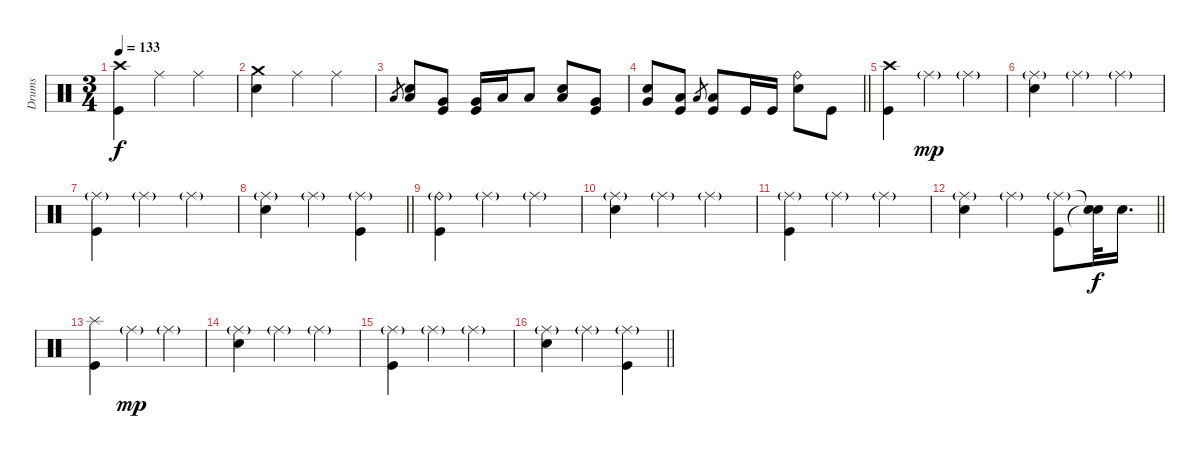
\track ("Drums" "Drums") {instrument percussion}
\staff
\articulation defaults
\ts (3 4)
\tempo 133
\clef neutral
\ks c
("Crash high (hit)" "Kick (hit)").4{dy f} "Ride (middle)".4 "Ride (middle)".4 |
("Crash medium (hit)" "Electric Snare (hit)").4 "Ride (middle)".4 "Ride (middle)".4 |
"Low Tom (hit)".8{gr} ("Low Tom (hit)" "Electric Snare (hit)").8 ("Very Low Tom (hit)" "Kick (hit)").8 ("Very Low Tom (hit)" "Kick (hit)").16 "Low Floor Tom (hit)".16 "Low Floor Tom (hit)".8 ("Low Tom (hit)" "Electric Snare (hit)").8 ("Very Low Tom (hit)" "Kick (hit)").8 |
\barLineRight lightlight
("Very Low Tom (hit)" "Electric Snare (hit)").8 ("Low Floor Tom (hit)" "Kick (hit)").8 "Low Floor Tom (hit)".8{gr} ("Low Floor Tom (hit)" "Kick (hit)").8 "Kick (hit)".16 "Kick (hit)".16 ("Ride (bell)" "Electric Snare (hit)").8 "Kick (hit)".8 |
\section ("" "")
("Crash high (hit)" "Kick (hit)").4 "Ride (middle)"{g}.4{dy mp} "Ride (middle)"{g}.4 |
("Ride (middle)"{g} "Electric Snare (hit)").4 "Ride (middle)"{g}.4 "Ride (middle)"{g}.4 |
("Ride (middle)"{g} "Kick (hit)").4 "Ride (middle)"{g}.4 "Ride (middle)"{g}.4 |
\barLineRight lightlight
("Ride (middle)"{g} "Electric Snare (hit)").4 "Ride (middle)"{g}.4 ("Ride (middle)"{g} "Kick (hit)").4 |
("Ride (bell)"{g} "Kick (hit)").4 "Ride (middle)"{g}.4 "Ride (middle)"{g}.4 |
("Ride (middle)"{g} "Electric Snare (hit)").4 "Ride (middle)"{g}.4 "Ride (middle)"{g}.4 |
("Ride (middle)"{g} "Kick (hit)").4 "Ride (middle)"{g}.4 "Ride (middle)"{g}.4 |
\barLineRight lightlight
("Ride (middle)"{g} "Electric Snare (hit)").4 "Ride (middle)"{g}.4 ("Ride (middle)"{g} "Kick (hit)").8 ("Snare (hit)"{t} "Snare (hit)"{t}).32{dy f} "Electric Snare (hit)".16{d} |
("Splash (hit)" "Kick (hit)").4 "Ride (middle)"{g}.4{dy mp} "Ride (middle)"{g}.4 |
("Ride (middle)"{g} "Electric Snare (hit)").4 "Ride (middle)"{g}.4 "Ride (middle)"{g}.4 |
("Ride (middle)"{g} "Kick (hit)").4 "Ride (middle)"{g}.4 "Ride (middle)"{g}.4 |
\barLineRight lightlight
("Ride (middle)"{g} "Electric Snare (hit)").4 "Ride (middle)"{g}.4 ("Ride (middle)"{g} "Kick (hit)").4
